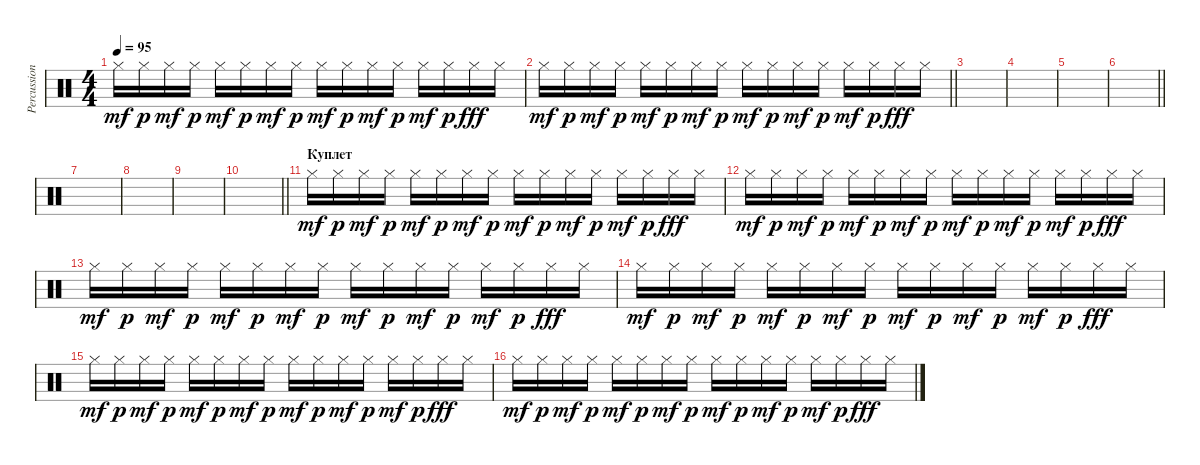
\track ("Percussion" "Percussion") {instrument percussion}
\staff {score}
\articulation defaults
\ts (4 4)
\tempo 95
\clef neutral
\ks c "Hi-Hat (closed)".16{dy mf} "Hi-Hat (closed)".16{dy p} "Hi-Hat (closed)".16{dy mf} "Hi-Hat (closed)".16{dy p} "Hi-Hat (closed)".16{dy mf} "Hi-Hat (closed)".16{dy p} "Hi-Hat (closed)".16{dy mf} "Hi-Hat (closed)".16{dy p} "Hi-Hat (closed)".16{dy mf} "Hi-Hat (closed)".16{dy p} "Hi-Hat (closed)".16{dy mf} "Hi-Hat (closed)".16{dy p} "Hi-Hat (closed)".16{dy mf} "Hi-Hat (closed)".16{dy p} "Hi-Hat (closed)".16{dy fff} "Hi-Hat (closed)".16
|
\barLineRight lightlight "Hi-Hat (closed)".16{dy mf} "Hi-Hat (closed)".16{dy p} "Hi-Hat (closed)".16{dy mf} "Hi-Hat (closed)".16{dy p} "Hi-Hat (closed)".16{dy mf} "Hi-Hat (closed)".16{dy p} "Hi-Hat (closed)".16{dy mf} "Hi-Hat (closed)".16{dy p} "Hi-Hat (closed)".16{dy mf} "Hi-Hat (closed)".16{dy p} "Hi-Hat (closed)".16{dy mf} "Hi-Hat (closed)".16{dy p} "Hi-Hat (closed)".16{dy mf} "Hi-Hat (closed)".16{dy p} "Hi-Hat (closed)".16{dy fff} "Hi-Hat (closed)".16
|
|
|
|
\barLineRight lightlight
|
|
|
|
\barLineRight lightlight
|
\section ("" "Куплет")
"Hi-Hat (closed)".16{dy mf} "Hi-Hat (closed)".16{dy p} "Hi-Hat (closed)".16{dy mf} "Hi-Hat (closed)".16{dy p} "Hi-Hat (closed)".16{dy mf} "Hi-Hat (closed)".16{dy p} "Hi-Hat (closed)".16{dy mf} "Hi-Hat (closed)".16{dy p} "Hi-Hat (closed)".16{dy mf} "Hi-Hat (closed)".16{dy p} "Hi-Hat (closed)".16{dy mf} "Hi-Hat (closed)".16{dy p} "Hi-Hat (closed)".16{dy mf} "Hi-Hat (closed)".16{dy p} "Hi-Hat (closed)".16{dy fff} "Hi-Hat (closed)".16 |
"Hi-Hat (closed)".16{dy mf} "Hi-Hat (closed)".16{dy p} "Hi-Hat (closed)".16{dy mf} "Hi-Hat (closed)".16{dy p} "Hi-Hat (closed)".16{dy mf} "Hi-Hat (closed)".16{dy p} "Hi-Hat (closed)".16{dy mf} "Hi-Hat (closed)".16{dy p} "Hi-Hat (closed)".16{dy mf} "Hi-Hat (closed)".16{dy p} "Hi-Hat (closed)".16{dy mf} "Hi-Hat (closed)".16{dy p} "Hi-Hat (closed)".16{dy mf} "Hi-Hat (closed)".16{dy p} "Hi-Hat (closed)".16{dy fff} "Hi-Hat (closed)".16 |
"Hi-Hat (closed)".16{dy mf} "Hi-Hat (closed)".16{dy p} "Hi-Hat (closed)".16{dy mf} "Hi-Hat (closed)".16{dy p} "Hi-Hat (closed)".16{dy mf} "Hi-Hat (closed)".16{dy p} "Hi-Hat (closed)".16{dy mf} "Hi-Hat (closed)".16{dy p} "Hi-Hat (closed)".16{dy mf} "Hi-Hat (closed)".16{dy p} "Hi-Hat (closed)".16{dy mf} "Hi-Hat (closed)".16{dy p} "Hi-Hat (closed)".16{dy mf} "Hi-Hat (closed)".16{dy p} "Hi-Hat (closed)".16{dy fff} "Hi-Hat (closed)".16 |
"Hi-Hat (closed)".16{dy mf} "Hi-Hat (closed)".16{dy p} "Hi-Hat (closed)".16{dy mf} "Hi-Hat (closed)".16{dy p} "Hi-Hat (closed)".16{dy mf} "Hi-Hat (closed)".16{dy p} "Hi-Hat (closed)".16{dy mf} "Hi-Hat (closed)".16{dy p} "Hi-Hat (closed)".16{dy mf} "Hi-Hat (closed)".16{dy p} "Hi-Hat (closed)".16{dy mf} "Hi-Hat (closed)".16{dy p} "Hi-Hat (closed)".16{dy mf} "Hi-Hat (closed)".16{dy p} "Hi-Hat (closed)".16{dy fff} "Hi-Hat (closed)".16 |
"Hi-Hat (closed)".16{dy mf} "Hi-Hat (closed)".16{dy p} "Hi-Hat (closed)".16{dy mf} "Hi-Hat (closed)".16{dy p} "Hi-Hat (closed)".16{dy mf} "Hi-Hat (closed)".16{dy p} "Hi-Hat (closed)".16{dy mf} "Hi-Hat (closed)".16{dy p} "Hi-Hat (closed)".16{dy mf} "Hi-Hat (closed)".16{dy p} "Hi-Hat (closed)".16{dy mf} "Hi-Hat (closed)".16{dy p} "Hi-Hat (closed)".16{dy mf} "Hi-Hat (closed)".16{dy p} "Hi-Hat (closed)".16{dy fff} "Hi-Hat (closed)".16 |
"Hi-Hat (closed)".16{dy mf} "Hi-Hat (closed)".16{dy p} "Hi-Hat (closed)".16{dy mf} "Hi-Hat (closed)".16{dy p} "Hi-Hat (closed)".16{dy mf} "Hi-Hat (closed)".16{dy p} "Hi-Hat (closed)".16{dy mf} "Hi-Hat (closed)".16{dy p} "Hi-Hat (closed)".16{dy mf} "Hi-Hat (closed)".16{dy p} "Hi-Hat (closed)".16{dy mf} "Hi-Hat (closed)".16{dy p} "Hi-Hat (closed)".16{dy mf} "Hi-Hat (closed)".16{dy p} "Hi-Hat (closed)".16{dy fff} "Hi-Hat (closed)".16
